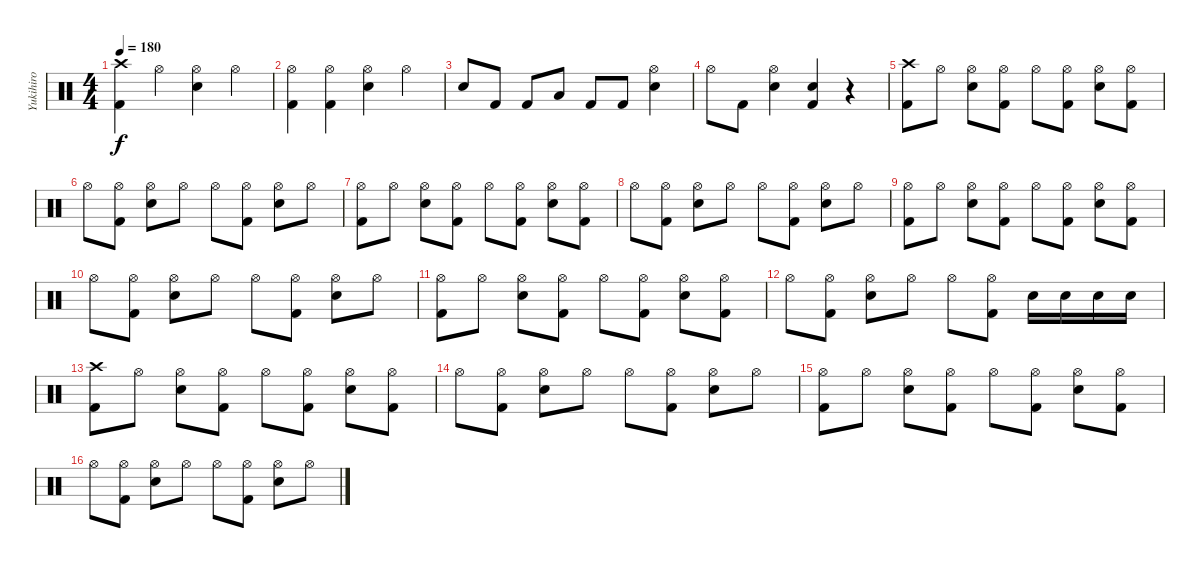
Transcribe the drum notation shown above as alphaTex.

\track ("Yukihiro" "Yukihiro") {instrument percussion}
\staff {score}
\articulation defaults
\ts (4 4)
\tempo 180
\clef neutral
\ks c
("Crash high (hit)" "Kick (hit) 2").4{dy f} "Hi-Hat (open)".4 ("Hi-Hat (open)" "Electric Snare (hit)").4 "Hi-Hat (open)".4 |
("Hi-Hat (open)" "Kick (hit) 2").4 ("Hi-Hat (open)" "Kick (hit) 2").4 ("Hi-Hat (open)" "Electric Snare (hit)").4 "Hi-Hat (open)".4 |
"Electric Snare (hit)".8 "Kick (hit) 2".8 "Kick (hit) 2".8 "Low Tom (hit)".8 "Kick (hit) 2".8 "Kick (hit) 2".8 ("Hi-Hat (open)" "Electric Snare (hit)").4 |
"Hi-Hat (open)".8 "Kick (hit) 2".8 ("Hi-Hat (open)" "Electric Snare (hit)").4 ("Electric Snare (hit)" "Kick (hit) 2").4 r.4 |
("Crash high (hit)" "Kick (hit) 2").8 "Hi-Hat (open)".8 ("Hi-Hat (open)" "Electric Snare (hit)").8 ("Hi-Hat (open)" "Kick (hit) 2").8 "Hi-Hat (open)".8 ("Hi-Hat (open)" "Kick (hit) 2").8 ("Hi-Hat (open)" "Electric Snare (hit)").8 ("Hi-Hat (open)" "Kick (hit) 2").8 |
"Hi-Hat (open)".8 ("Hi-Hat (open)" "Kick (hit) 2").8 ("Hi-Hat (open)" "Electric Snare (hit)").8 "Hi-Hat (open)".8 "Hi-Hat (open)".8 ("Hi-Hat (open)" "Kick (hit) 2").8 ("Hi-Hat (open)" "Electric Snare (hit)").8 "Hi-Hat (open)".8 |
("Hi-Hat (open)" "Kick (hit) 2").8 "Hi-Hat (open)".8 ("Hi-Hat (open)" "Electric Snare (hit)").8 ("Hi-Hat (open)" "Kick (hit) 2").8 "Hi-Hat (open)".8 ("Hi-Hat (open)" "Kick (hit) 2").8 ("Hi-Hat (open)" "Electric Snare (hit)").8 ("Hi-Hat (open)" "Kick (hit) 2").8 |
"Hi-Hat (open)".8 ("Hi-Hat (open)" "Kick (hit) 2").8 ("Hi-Hat (open)" "Electric Snare (hit)").8 "Hi-Hat (open)".8 "Hi-Hat (open)".8 ("Hi-Hat (open)" "Kick (hit) 2").8 ("Hi-Hat (open)" "Electric Snare (hit)").8 "Hi-Hat (open)".8 |
("Hi-Hat (open)" "Kick (hit) 2").8 "Hi-Hat (open)".8 ("Hi-Hat (open)" "Electric Snare (hit)").8 ("Hi-Hat (open)" "Kick (hit) 2").8 "Hi-Hat (open)".8 ("Hi-Hat (open)" "Kick (hit) 2").8 ("Hi-Hat (open)" "Electric Snare (hit)").8 ("Hi-Hat (open)" "Kick (hit) 2").8 |
"Hi-Hat (open)".8 ("Hi-Hat (open)" "Kick (hit) 2").8 ("Hi-Hat (open)" "Electric Snare (hit)").8 "Hi-Hat (open)".8 "Hi-Hat (open)".8 ("Hi-Hat (open)" "Kick (hit) 2").8 ("Hi-Hat (open)" "Electric Snare (hit)").8 "Hi-Hat (open)".8 |
("Hi-Hat (open)" "Kick (hit) 2").8 "Hi-Hat (open)".8 ("Hi-Hat (open)" "Electric Snare (hit)").8 ("Hi-Hat (open)" "Kick (hit) 2").8 "Hi-Hat (open)".8 ("Hi-Hat (open)" "Kick (hit) 2").8 ("Hi-Hat (open)" "Electric Snare (hit)").8 ("Hi-Hat (open)" "Kick (hit) 2").8 |
"Hi-Hat (open)".8 ("Hi-Hat (open)" "Kick (hit) 2").8 ("Hi-Hat (open)" "Electric Snare (hit)").8 "Hi-Hat (open)".8 "Hi-Hat (open)".8 ("Hi-Hat (open)" "Kick (hit) 2").8 "Electric Snare (hit)".16 "Electric Snare (hit)".16 "Electric Snare (hit)".16 "Electric Snare (hit)".16 |
("Crash high (hit)" "Kick (hit) 2").8 "Hi-Hat (open)".8 ("Hi-Hat (open)" "Electric Snare (hit)").8 ("Hi-Hat (open)" "Kick (hit) 2").8 "Hi-Hat (open)".8 ("Hi-Hat (open)" "Kick (hit) 2").8 ("Hi-Hat (open)" "Electric Snare (hit)").8 ("Hi-Hat (open)" "Kick (hit) 2").8 |
"Hi-Hat (open)".8 ("Hi-Hat (open)" "Kick (hit) 2").8 ("Hi-Hat (open)" "Electric Snare (hit)").8 "Hi-Hat (open)".8 "Hi-Hat (open)".8 ("Hi-Hat (open)" "Kick (hit) 2").8 ("Hi-Hat (open)" "Electric Snare (hit)").8 "Hi-Hat (open)".8 |
("Hi-Hat (open)" "Kick (hit) 2").8 "Hi-Hat (open)".8 ("Hi-Hat (open)" "Electric Snare (hit)").8 ("Hi-Hat (open)" "Kick (hit) 2").8 "Hi-Hat (open)".8 ("Hi-Hat (open)" "Kick (hit) 2").8 ("Hi-Hat (open)" "Electric Snare (hit)").8 ("Hi-Hat (open)" "Kick (hit) 2").8 |
"Hi-Hat (open)".8 ("Hi-Hat (open)" "Kick (hit) 2").8 ("Hi-Hat (open)" "Electric Snare (hit)").8 "Hi-Hat (open)".8 "Hi-Hat (open)".8 ("Hi-Hat (open)" "Kick (hit) 2").8 ("Hi-Hat (open)" "Electric Snare (hit)").8 "Hi-Hat (open)".8
